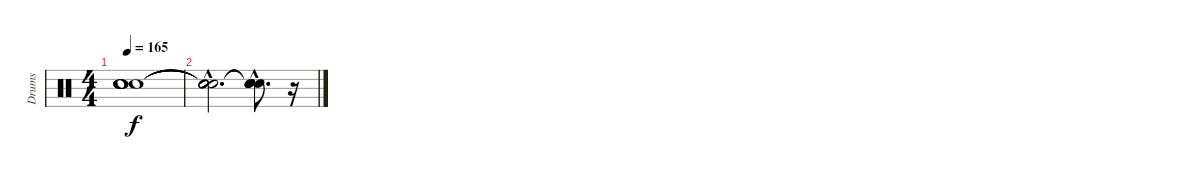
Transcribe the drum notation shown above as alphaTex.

\track ("Drums" "Drums") {instrument percussion}
\staff {score}
\articulation defaults
\ts (4 4)
\tempo 165
\clef neutral
\ks c
("Snare (hit)"{t} "Snare (hit)"{t} "Snare (hit)"{t} "Snare (hit)"{t} "Snare (hit)"{t}).1{dy f} |
("Snare (hit)"{hac t} "Snare (hit)"{hac t} "Snare (hit)"{hac t} "Snare (hit)"{hac t} "Snare (hit)"{hac t}).2{d} ("Snare (hit)"{hac t} "Snare (hit)"{hac t} "Snare (hit)"{hac t} "Snare (hit)"{hac t} "Snare (hit)"{hac t}).8{d} r.16
